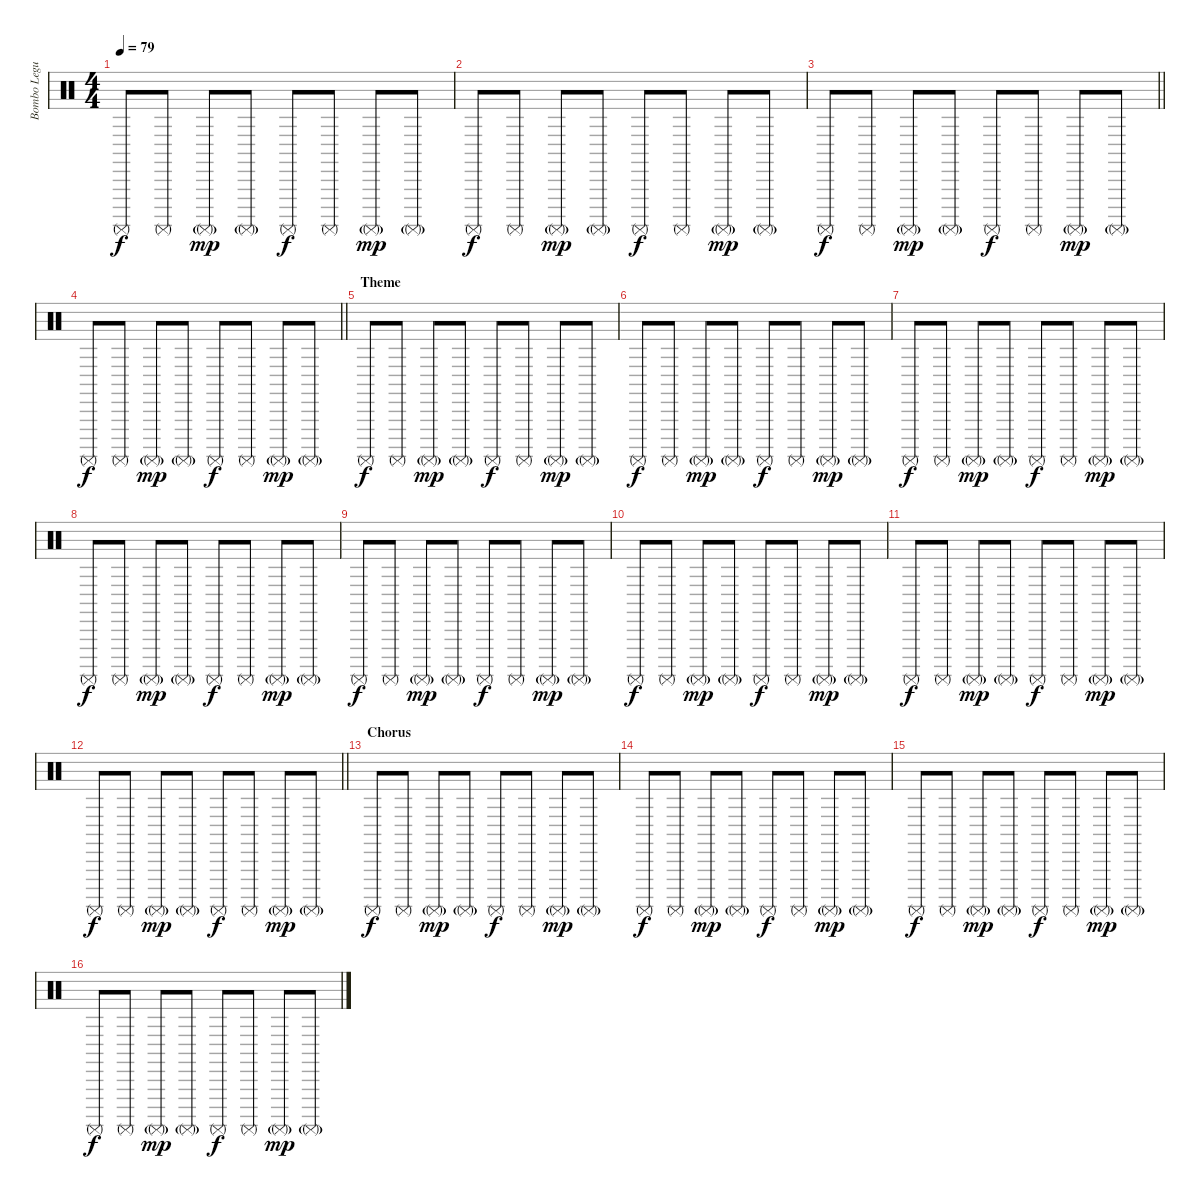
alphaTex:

\track ("Bombo Leguero" "Bombo Legu") {instrument percussion}
\staff {score}
\articulation defaults
\ts (4 4)
\section ("" "")
\tempo 79
\clef neutral
\ks c "Surdo (mute)".8{dy f} "Surdo (mute)".8 "Surdo (mute)"{g}.8{dy mp} "Surdo (mute)"{g}.8 "Surdo (mute)".8{dy f} "Surdo (mute)".8 "Surdo (mute)"{g}.8{dy mp} "Surdo (mute)"{g}.8
|
"Surdo (mute)".8{dy f} "Surdo (mute)".8 "Surdo (mute)"{g}.8{dy mp} "Surdo (mute)"{g}.8 "Surdo (mute)".8{dy f} "Surdo (mute)".8 "Surdo (mute)"{g}.8{dy mp} "Surdo (mute)"{g}.8 |
\barLineRight lightlight "Surdo (mute)".8{dy f} "Surdo (mute)".8 "Surdo (mute)"{g}.8{dy mp} "Surdo (mute)"{g}.8 "Surdo (mute)".8{dy f} "Surdo (mute)".8 "Surdo (mute)"{g}.8{dy mp} "Surdo (mute)"{g}.8
|
\section ("" "")
\barLineRight lightlight "Surdo (mute)".8{dy f} "Surdo (mute)".8 "Surdo (mute)"{g}.8{dy mp} "Surdo (mute)"{g}.8 "Surdo (mute)".8{dy f} "Surdo (mute)".8 "Surdo (mute)"{g}.8{dy mp} "Surdo (mute)"{g}.8
|
\section ("" "Theme")
"Surdo (mute)".8{dy f} "Surdo (mute)".8 "Surdo (mute)"{g}.8{dy mp} "Surdo (mute)"{g}.8 "Surdo (mute)".8{dy f} "Surdo (mute)".8 "Surdo (mute)"{g}.8{dy mp} "Surdo (mute)"{g}.8 |
"Surdo (mute)".8{dy f} "Surdo (mute)".8 "Surdo (mute)"{g}.8{dy mp} "Surdo (mute)"{g}.8 "Surdo (mute)".8{dy f} "Surdo (mute)".8 "Surdo (mute)"{g}.8{dy mp} "Surdo (mute)"{g}.8 |
"Surdo (mute)".8{dy f} "Surdo (mute)".8 "Surdo (mute)"{g}.8{dy mp} "Surdo (mute)"{g}.8 "Surdo (mute)".8{dy f} "Surdo (mute)".8 "Surdo (mute)"{g}.8{dy mp} "Surdo (mute)"{g}.8 |
"Surdo (mute)".8{dy f} "Surdo (mute)".8 "Surdo (mute)"{g}.8{dy mp} "Surdo (mute)"{g}.8 "Surdo (mute)".8{dy f} "Surdo (mute)".8 "Surdo (mute)"{g}.8{dy mp} "Surdo (mute)"{g}.8 |
"Surdo (mute)".8{dy f} "Surdo (mute)".8 "Surdo (mute)"{g}.8{dy mp} "Surdo (mute)"{g}.8 "Surdo (mute)".8{dy f} "Surdo (mute)".8 "Surdo (mute)"{g}.8{dy mp} "Surdo (mute)"{g}.8 |
"Surdo (mute)".8{dy f} "Surdo (mute)".8 "Surdo (mute)"{g}.8{dy mp} "Surdo (mute)"{g}.8 "Surdo (mute)".8{dy f} "Surdo (mute)".8 "Surdo (mute)"{g}.8{dy mp} "Surdo (mute)"{g}.8 |
"Surdo (mute)".8{dy f} "Surdo (mute)".8 "Surdo (mute)"{g}.8{dy mp} "Surdo (mute)"{g}.8 "Surdo (mute)".8{dy f} "Surdo (mute)".8 "Surdo (mute)"{g}.8{dy mp} "Surdo (mute)"{g}.8 |
\barLineRight lightlight "Surdo (mute)".8{dy f} "Surdo (mute)".8 "Surdo (mute)"{g}.8{dy mp} "Surdo (mute)"{g}.8 "Surdo (mute)".8{dy f} "Surdo (mute)".8 "Surdo (mute)"{g}.8{dy mp} "Surdo (mute)"{g}.8
|
\section ("" "Chorus")
"Surdo (mute)".8{dy f} "Surdo (mute)".8 "Surdo (mute)"{g}.8{dy mp} "Surdo (mute)"{g}.8 "Surdo (mute)".8{dy f} "Surdo (mute)".8 "Surdo (mute)"{g}.8{dy mp} "Surdo (mute)"{g}.8 |
"Surdo (mute)".8{dy f} "Surdo (mute)".8 "Surdo (mute)"{g}.8{dy mp} "Surdo (mute)"{g}.8 "Surdo (mute)".8{dy f} "Surdo (mute)".8 "Surdo (mute)"{g}.8{dy mp} "Surdo (mute)"{g}.8 |
"Surdo (mute)".8{dy f} "Surdo (mute)".8 "Surdo (mute)"{g}.8{dy mp} "Surdo (mute)"{g}.8 "Surdo (mute)".8{dy f} "Surdo (mute)".8 "Surdo (mute)"{g}.8{dy mp} "Surdo (mute)"{g}.8 |
"Surdo (mute)".8{dy f} "Surdo (mute)".8 "Surdo (mute)"{g}.8{dy mp} "Surdo (mute)"{g}.8 "Surdo (mute)".8{dy f} "Surdo (mute)".8 "Surdo (mute)"{g}.8{dy mp} "Surdo (mute)"{g}.8
